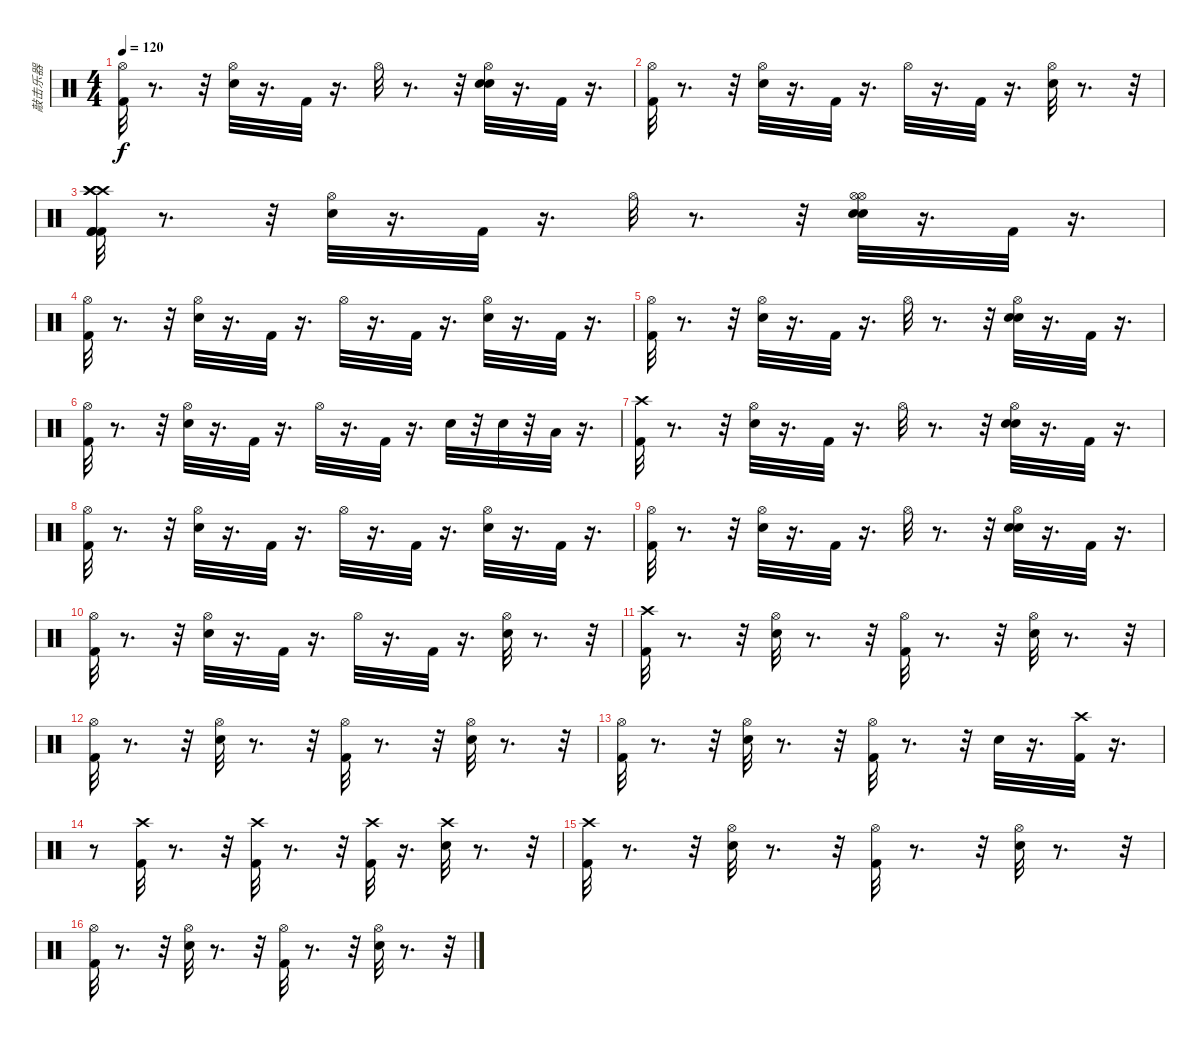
\track ("敲击乐器" "敲击乐器") {instrument percussion}
\staff {score}
\articulation defaults
\ts (4 4)
\tempo 120
\clef neutral
\ks c
("Hi-Hat (open)" "Kick (hit) 2").32{dy f} r.8{d} r.32 ("Snare (hit) 2" "Hi-Hat (open)").32 r.16{d} "Kick (hit) 2".32 r.16{d} "Hi-Hat (open)".32 r.8{d} r.32 ("Snare (hit) 2" "Snare (hit) 2" "Hi-Hat (open)").32 r.16{d} "Kick (hit) 2".32 r.16{d} |
("Hi-Hat (open)" "Kick (hit) 2").32 r.8{d} r.32 ("Snare (hit) 2" "Hi-Hat (open)").32 r.16{d} "Kick (hit) 2".32 r.16{d} "Hi-Hat (open)".32 r.16{d} "Kick (hit) 2".32 r.16{d} ("Snare (hit) 2" "Hi-Hat (open)").32 r.8{d} r.32 |
("Kick (hit) 2" "Crash high (hit)" "Kick (hit) 2" "Crash high (hit)" "Kick (hit) 2" "Crash high (hit)").32 r.8{d} r.32 ("Snare (hit) 2" "Hi-Hat (open)").32 r.16{d} "Kick (hit) 2".32 r.16{d} "Hi-Hat (open)".32 r.8{d} r.32 ("Snare (hit) 2" "Hi-Hat (open)" "Snare (hit) 2" "Hi-Hat (open)").32 r.16{d} "Kick (hit) 2".32 r.16{d} |
("Kick (hit) 2" "Hi-Hat (open)").32 r.8{d} r.32 ("Snare (hit) 2" "Hi-Hat (open)").32 r.16{d} "Kick (hit) 2".32 r.16{d} "Hi-Hat (open)".32 r.16{d} "Kick (hit) 2".32 r.16{d} ("Snare (hit) 2" "Hi-Hat (open)").32 r.16{d} "Kick (hit) 2".32 r.16{d} |
("Hi-Hat (open)" "Kick (hit) 2").32 r.8{d} r.32 ("Snare (hit) 2" "Hi-Hat (open)").32 r.16{d} "Kick (hit) 2".32 r.16{d} "Hi-Hat (open)".32 r.8{d} r.32 ("Snare (hit) 2" "Hi-Hat (open)" "Snare (hit) 2").32 r.16{d} "Kick (hit) 2".32 r.16{d} |
("Kick (hit) 2" "Hi-Hat (open)").32 r.8{d} r.32 ("Snare (hit) 2" "Hi-Hat (open)").32 r.16{d} "Kick (hit) 2".32 r.16{d} "Hi-Hat (open)".32 r.16{d} "Kick (hit) 2".32 r.16{d} "Snare (hit) 2".32 r.32 "Snare (hit) 2".32 r.32 "Low Floor Tom (hit)".32 r.16{d} |
("Kick (hit) 2" "Crash high (hit)").32 r.8{d} r.32 ("Snare (hit) 2" "Hi-Hat (open)").32 r.16{d} "Kick (hit) 2".32 r.16{d} "Hi-Hat (open)".32 r.8{d} r.32 ("Snare (hit) 2" "Snare (hit) 2" "Hi-Hat (open)").32 r.16{d} "Kick (hit) 2".32 r.16{d} |
("Kick (hit) 2" "Hi-Hat (open)").32 r.8{d} r.32 ("Snare (hit) 2" "Hi-Hat (open)").32 r.16{d} "Kick (hit) 2".32 r.16{d} "Hi-Hat (open)".32 r.16{d} "Kick (hit) 2".32 r.16{d} ("Hi-Hat (open)" "Snare (hit) 2").32 r.16{d} "Kick (hit) 2".32 r.16{d} |
("Hi-Hat (open)" "Kick (hit) 2").32 r.8{d} r.32 ("Snare (hit) 2" "Hi-Hat (open)").32 r.16{d} "Kick (hit) 2".32 r.16{d} "Hi-Hat (open)".32 r.8{d} r.32 ("Snare (hit) 2" "Snare (hit) 2" "Hi-Hat (open)").32 r.16{d} "Kick (hit) 2".32 r.16{d} |
("Hi-Hat (open)" "Kick (hit) 2").32 r.8{d} r.32 ("Snare (hit) 2" "Hi-Hat (open)").32 r.16{d} "Kick (hit) 2".32 r.16{d} "Hi-Hat (open)".32 r.16{d} "Kick (hit) 2".32 r.16{d} ("Snare (hit) 2" "Hi-Hat (open)").32 r.8{d} r.32 |
("Kick (hit) 2" "Crash high (hit)").32 r.8{d} r.32 ("Snare (hit) 2" "Hi-Hat (open)").32 r.8{d} r.32 ("Kick (hit) 2" "Hi-Hat (open)").32 r.8{d} r.32 ("Hi-Hat (open)" "Snare (hit) 2").32 r.8{d} r.32 |
("Kick (hit) 2" "Hi-Hat (open)").32 r.8{d} r.32 ("Snare (hit) 2" "Hi-Hat (open)").32 r.8{d} r.32 ("Kick (hit) 2" "Hi-Hat (open)").32 r.8{d} r.32 ("Hi-Hat (open)" "Snare (hit) 2").32 r.8{d} r.32 |
("Kick (hit) 2" "Hi-Hat (open)").32 r.8{d} r.32 ("Hi-Hat (open)" "Snare (hit) 2").32 r.8{d} r.32 ("Kick (hit) 2" "Hi-Hat (open)").32 r.8{d} r.32 "Snare (hit) 2".32 r.16{d} ("Kick (hit) 2" "Crash high (hit)").32 r.16{d} |
r.8 ("Kick (hit) 2" "Crash high (hit)").32 r.8{d} r.32 ("Kick (hit) 2" "Crash high (hit)").32 r.8{d} r.32 ("Kick (hit) 2" "Crash high (hit)").32 r.16{d} ("Snare (hit) 2" "Crash high (hit)").32 r.8{d} r.32 |
("Crash high (hit)" "Kick (hit) 2").32 r.8{d} r.32 ("Hi-Hat (open)" "Snare (hit) 2").32 r.8{d} r.32 ("Hi-Hat (open)" "Kick (hit) 2").32 r.8{d} r.32 ("Hi-Hat (open)" "Snare (hit) 2").32 r.8{d} r.32 |
("Kick (hit) 2" "Hi-Hat (open)").32 r.8{d} r.32 ("Snare (hit) 2" "Hi-Hat (open)").32 r.8{d} r.32 ("Kick (hit) 2" "Hi-Hat (open)").32 r.8{d} r.32 ("Hi-Hat (open)" "Snare (hit) 2").32 r.8{d} r.32
